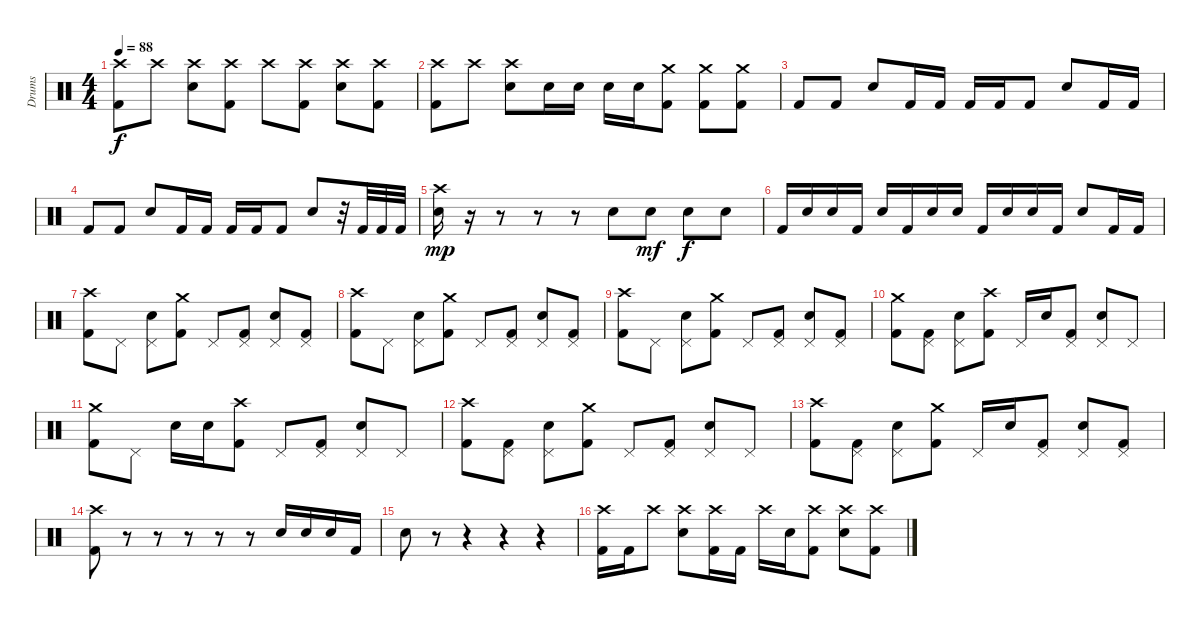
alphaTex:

\track ("Drums" "Drums") {instrument percussion}
\staff {score}
\articulation defaults
\ts (4 4)
\tempo 88
\clef neutral
\ks c
("Crash high (hit)" "Kick (hit) 2").8{dy f} "Crash high (hit)".8 ("Crash high (hit)" "Electric Snare (hit)").8 ("Crash high (hit)" "Kick (hit) 2").8 "Crash high (hit)".8 ("Crash high (hit)" "Kick (hit) 2").8 ("Crash high (hit)" "Electric Snare (hit)").8 ("Crash high (hit)" "Kick (hit) 2").8 |
("Crash high (hit)" "Kick (hit) 2").8 "Crash high (hit)".8 ("Crash high (hit)" "Electric Snare (hit)").8 "Electric Snare (hit)".16 "Electric Snare (hit)".16 "Electric Snare (hit)".16 "Electric Snare (hit)".16 ("Crash medium (hit)" "Kick (hit) 2").8 ("Crash medium (hit)" "Kick (hit) 2").8 ("Crash medium (hit)" "Kick (hit) 2").8 |
"Kick (hit) 2".8 "Kick (hit) 2".8 "Electric Snare (hit)".8 "Kick (hit) 2".16 "Kick (hit) 2".16 "Kick (hit) 2".16 "Kick (hit) 2".16 "Kick (hit) 2".8 "Electric Snare (hit)".8 "Kick (hit) 2".16 "Kick (hit) 2".16 |
"Kick (hit) 2".8 "Kick (hit) 2".8 "Electric Snare (hit)".8 "Kick (hit) 2".16 "Kick (hit) 2".16 "Kick (hit) 2".16 "Kick (hit) 2".16 "Kick (hit) 2".8 "Electric Snare (hit)".8 r.32 "Kick (hit) 2".32 "Kick (hit) 2".32 "Kick (hit) 2".32 |
("Crash high (hit)" "Electric Snare (hit)").16{dy mp} r.16 r.8 r.8 r.8 "Electric Snare (hit)".8 "Electric Snare (hit)".8{dy mf} "Electric Snare (hit)".8{dy f} "Electric Snare (hit)".8 |
"Kick (hit) 2".16 "Electric Snare (hit)".16 "Electric Snare (hit)".16 "Kick (hit) 2".16 "Electric Snare (hit)".16 "Kick (hit) 2".16 "Electric Snare (hit)".16 "Electric Snare (hit)".16 "Kick (hit) 2".16 "Electric Snare (hit)".16 "Electric Snare (hit)".16 "Kick (hit) 2".16 "Electric Snare (hit)".8 "Kick (hit) 2".16 "Kick (hit) 2".16 |
("Crash high (hit)" "Kick (hit) 2").8 "Pedal Hi-Hat (hit)".8 ("Pedal Hi-Hat (hit)" "Electric Snare (hit)").8 ("Crash medium (hit)" "Kick (hit) 2").8 "Pedal Hi-Hat (hit)".8 ("Pedal Hi-Hat (hit)" "Kick (hit) 2").8 ("Pedal Hi-Hat (hit)" "Electric Snare (hit)").8 ("Pedal Hi-Hat (hit)" "Kick (hit) 2").8 |
("Crash high (hit)" "Kick (hit) 2").8 "Pedal Hi-Hat (hit)".8 ("Pedal Hi-Hat (hit)" "Electric Snare (hit)").8 ("Crash medium (hit)" "Kick (hit) 2").8 "Pedal Hi-Hat (hit)".8 ("Pedal Hi-Hat (hit)" "Kick (hit) 2").8 ("Pedal Hi-Hat (hit)" "Electric Snare (hit)").8 ("Pedal Hi-Hat (hit)" "Kick (hit) 2").8 |
("Crash high (hit)" "Kick (hit) 2").8 "Pedal Hi-Hat (hit)".8 ("Pedal Hi-Hat (hit)" "Electric Snare (hit)").8 ("Crash medium (hit)" "Kick (hit) 2").8 "Pedal Hi-Hat (hit)".8 ("Pedal Hi-Hat (hit)" "Kick (hit) 2").8 ("Pedal Hi-Hat (hit)" "Electric Snare (hit)").8 ("Pedal Hi-Hat (hit)" "Kick (hit) 2").8 |
("Crash medium (hit)" "Kick (hit) 2").8 ("Pedal Hi-Hat (hit)" "Kick (hit) 2").8 ("Pedal Hi-Hat (hit)" "Electric Snare (hit)").8 ("Crash high (hit)" "Kick (hit) 2").8 "Pedal Hi-Hat (hit)".16 "Electric Snare (hit)".16 ("Pedal Hi-Hat (hit)" "Kick (hit) 2").8 ("Pedal Hi-Hat (hit)" "Electric Snare (hit)").8 "Pedal Hi-Hat (hit)".8 |
("Crash medium (hit)" "Kick (hit) 2").8 "Pedal Hi-Hat (hit)".8 "Electric Snare (hit)".16 "Electric Snare (hit)".16 ("Crash high (hit)" "Kick (hit) 2").8 "Pedal Hi-Hat (hit)".8 ("Pedal Hi-Hat (hit)" "Kick (hit) 2").8 ("Pedal Hi-Hat (hit)" "Electric Snare (hit)").8 "Pedal Hi-Hat (hit)".8 |
("Crash high (hit)" "Kick (hit) 2").8 ("Pedal Hi-Hat (hit)" "Kick (hit) 2").8 ("Pedal Hi-Hat (hit)" "Electric Snare (hit)").8 ("Crash medium (hit)" "Kick (hit) 2").8 "Pedal Hi-Hat (hit)".8 ("Pedal Hi-Hat (hit)" "Kick (hit) 2").8 ("Pedal Hi-Hat (hit)" "Electric Snare (hit)").8 "Pedal Hi-Hat (hit)".8 |
("Crash high (hit)" "Kick (hit) 2").8 ("Pedal Hi-Hat (hit)" "Kick (hit) 2").8 ("Pedal Hi-Hat (hit)" "Electric Snare (hit)").8 ("Crash medium (hit)" "Kick (hit) 2").8 "Pedal Hi-Hat (hit)".16 "Electric Snare (hit)".16 ("Pedal Hi-Hat (hit)" "Kick (hit) 2").8 ("Pedal Hi-Hat (hit)" "Electric Snare (hit)").8 ("Pedal Hi-Hat (hit)" "Kick (hit) 2").8 |
("Crash high (hit)" "Kick (hit) 2").8 r.8 r.8 r.8 r.8 r.8 "Electric Snare (hit)".16 "Electric Snare (hit)".16 "Electric Snare (hit)".16 "Kick (hit) 2".16 |
"Electric Snare (hit)".8 r.8 r.4 r.4 r.4 |
("Crash high (hit)" "Kick (hit) 2").16 "Kick (hit) 2".16 "Crash high (hit)".8 ("Crash high (hit)" "Electric Snare (hit)").8 ("Crash high (hit)" "Kick (hit) 2").16 "Kick (hit) 2".16 "Crash high (hit)".16 "Electric Snare (hit)".16 ("Crash high (hit)" "Kick (hit) 2").8 ("Crash high (hit)" "Electric Snare (hit)").8 ("Crash high (hit)" "Kick (hit) 2").8
